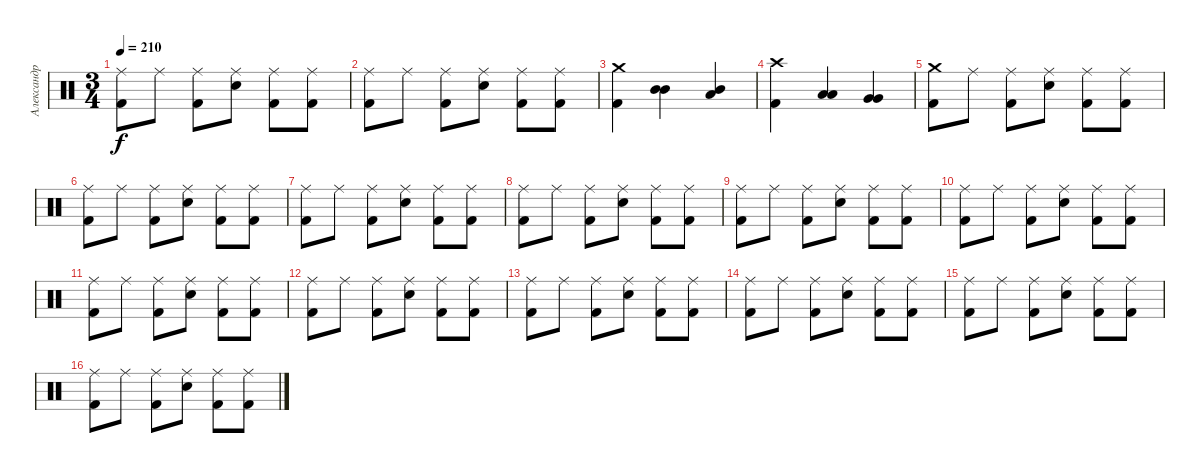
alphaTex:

\track ("Александр Манякин" "Александр ") {instrument percussion}
\staff {score}
\articulation defaults
\ts (3 4)
\tempo 210
\clef neutral
\ks c
("Ride (middle)" "Kick (hit) 2").8{dy f} "Ride (middle)".8 ("Ride (middle)" "Kick (hit) 2").8 ("Ride (middle)" "Snare (hit) 2").8 ("Ride (middle)" "Kick (hit) 2").8 ("Ride (middle)" "Kick (hit) 2").8 |
("Ride (middle)" "Kick (hit) 2").8 "Ride (middle)".8 ("Ride (middle)" "Kick (hit) 2").8 ("Ride (middle)" "Snare (hit) 2").8 ("Ride (middle)" "Kick (hit) 2").8 ("Ride (middle)" "Kick (hit) 2").8 |
("Crash medium (hit)" "Kick (hit) 2").4 ("Mid Tom (hit)" "Mid Tom (hit)").4{bd 60} ("Mid Tom (hit)" "Low Tom (hit)").4{bd 60} |
("Crash high (hit)" "Kick (hit) 2").4 ("Low Tom (hit)" "Low Tom (hit)").4{bd 60} ("Very Low Tom (hit)" "Very Low Tom (hit)").4{bd 60} |
("Crash medium (hit)" "Kick (hit) 2").8 "Ride (middle)".8 ("Ride (middle)" "Kick (hit) 2").8 ("Ride (middle)" "Snare (hit) 2").8 ("Ride (middle)" "Kick (hit) 2").8 ("Ride (middle)" "Kick (hit) 2").8 |
("Ride (middle)" "Kick (hit) 2").8 "Ride (middle)".8 ("Ride (middle)" "Kick (hit) 2").8 ("Ride (middle)" "Snare (hit) 2").8 ("Ride (middle)" "Kick (hit) 2").8 ("Ride (middle)" "Kick (hit) 2").8 |
("Ride (middle)" "Kick (hit) 2").8 "Ride (middle)".8 ("Ride (middle)" "Kick (hit) 2").8 ("Ride (middle)" "Snare (hit) 2").8 ("Ride (middle)" "Kick (hit) 2").8 ("Ride (middle)" "Kick (hit) 2").8 |
("Ride (middle)" "Kick (hit) 2").8 "Ride (middle)".8 ("Ride (middle)" "Kick (hit) 2").8 ("Ride (middle)" "Snare (hit) 2").8 ("Ride (middle)" "Kick (hit) 2").8 ("Ride (middle)" "Kick (hit) 2").8 |
("Ride (middle)" "Kick (hit) 2").8 "Ride (middle)".8 ("Ride (middle)" "Kick (hit) 2").8 ("Ride (middle)" "Snare (hit) 2").8 ("Ride (middle)" "Kick (hit) 2").8 ("Ride (middle)" "Kick (hit) 2").8 |
("Ride (middle)" "Kick (hit) 2").8 "Ride (middle)".8 ("Ride (middle)" "Kick (hit) 2").8 ("Ride (middle)" "Snare (hit) 2").8 ("Ride (middle)" "Kick (hit) 2").8 ("Ride (middle)" "Kick (hit) 2").8 |
("Ride (middle)" "Kick (hit) 2").8 "Ride (middle)".8 ("Ride (middle)" "Kick (hit) 2").8 ("Ride (middle)" "Snare (hit) 2").8 ("Ride (middle)" "Kick (hit) 2").8 ("Ride (middle)" "Kick (hit) 2").8 |
("Ride (middle)" "Kick (hit) 2").8 "Ride (middle)".8 ("Ride (middle)" "Kick (hit) 2").8 ("Ride (middle)" "Snare (hit) 2").8 ("Ride (middle)" "Kick (hit) 2").8 ("Ride (middle)" "Kick (hit) 2").8 |
("Ride (middle)" "Kick (hit) 2").8 "Ride (middle)".8 ("Ride (middle)" "Kick (hit) 2").8 ("Ride (middle)" "Snare (hit) 2").8 ("Ride (middle)" "Kick (hit) 2").8 ("Ride (middle)" "Kick (hit) 2").8 |
("Ride (middle)" "Kick (hit) 2").8 "Ride (middle)".8 ("Ride (middle)" "Kick (hit) 2").8 ("Ride (middle)" "Snare (hit) 2").8 ("Ride (middle)" "Kick (hit) 2").8 ("Ride (middle)" "Kick (hit) 2").8 |
("Ride (middle)" "Kick (hit) 2").8 "Ride (middle)".8 ("Ride (middle)" "Kick (hit) 2").8 ("Ride (middle)" "Snare (hit) 2").8 ("Ride (middle)" "Kick (hit) 2").8 ("Ride (middle)" "Kick (hit) 2").8 |
("Ride (middle)" "Kick (hit) 2").8 "Ride (middle)".8 ("Ride (middle)" "Kick (hit) 2").8 ("Ride (middle)" "Snare (hit) 2").8 ("Ride (middle)" "Kick (hit) 2").8 ("Ride (middle)" "Kick (hit) 2").8
